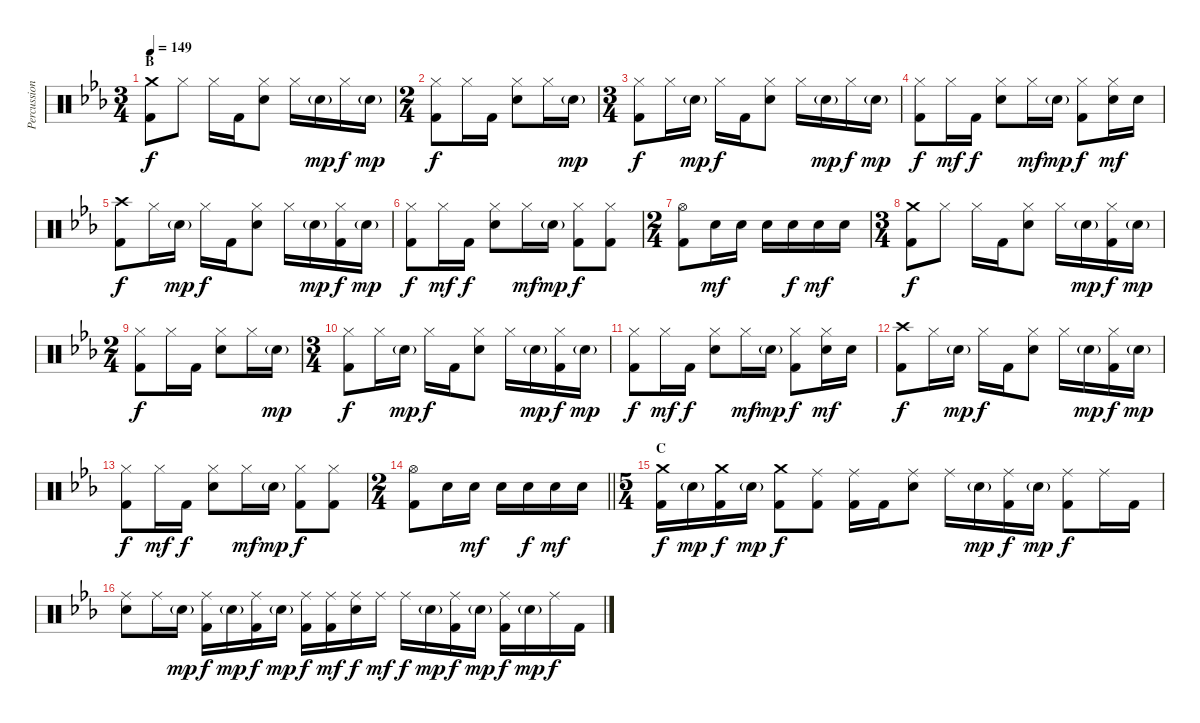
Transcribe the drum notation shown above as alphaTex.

\track ("Percussion" "Percussion") {instrument percussion}
\staff {score}
\articulation defaults
\ts (3 4)
\section ("" "B")
\tempo 149
\clef neutral
\ks cminor
("Crash medium (hit)" "Kick (hit) 2").8{dy f} "Hi-Hat (closed)".8 "Hi-Hat (closed)".16 "Kick (hit) 2".16 ("Hi-Hat (closed)" "Snare (hit) 2").8 "Hi-Hat (closed)".16 "Snare (hit) 2"{g}.16{dy mp} "Hi-Hat (closed)".16{dy f} "Snare (hit) 2"{g}.16{dy mp} |
\ts (2 4)
("Hi-Hat (closed)" "Kick (hit) 2").8{dy f} "Hi-Hat (closed)".16 "Kick (hit) 2".16 ("Hi-Hat (closed)" "Snare (hit) 2").8 "Hi-Hat (closed)".16 "Snare (hit) 2"{g}.16{dy mp} |
\ts (3 4)
("Hi-Hat (closed)" "Kick (hit) 2").8{dy f} "Hi-Hat (closed)".16 "Snare (hit) 2"{g}.16{dy mp} "Hi-Hat (closed)".16{dy f} "Kick (hit) 2".16 ("Hi-Hat (closed)" "Snare (hit) 2").8 "Hi-Hat (closed)".16 "Snare (hit) 2"{g}.16{dy mp} "Hi-Hat (closed)".16{dy f} "Snare (hit) 2"{g}.16{dy mp} |
("Hi-Hat (closed)" "Kick (hit) 2").8{dy f} "Hi-Hat (closed)".16{dy mf} "Kick (hit) 2".16{dy f} ("Hi-Hat (closed)" "Snare (hit) 2").8 "Hi-Hat (closed)".16{dy mf} "Snare (hit) 2"{g}.16{dy mp} ("Hi-Hat (closed)" "Kick (hit) 2").8{dy f} ("Hi-Hat (closed)" "Snare (hit) 2").16{dy mf} "Snare (hit) 2".16 |
("Crash high (hit)" "Kick (hit) 2").8{dy f} "Hi-Hat (closed)".16 "Snare (hit) 2"{g}.16{dy mp} "Hi-Hat (closed)".16{dy f} "Kick (hit) 2".16 ("Hi-Hat (closed)" "Snare (hit) 2").8 "Hi-Hat (closed)".16 "Snare (hit) 2"{g}.16{dy mp} ("Hi-Hat (closed)" "Kick (hit) 2").16{dy f} "Snare (hit) 2"{g}.16{dy mp} |
("Hi-Hat (closed)" "Kick (hit) 2").8{dy f} "Hi-Hat (closed)".16{dy mf} "Kick (hit) 2".16{dy f} ("Hi-Hat (closed)" "Snare (hit) 2").8 "Hi-Hat (closed)".16{dy mf} "Snare (hit) 2"{g}.16{dy mp} ("Hi-Hat (closed)" "Kick (hit) 2").8{dy f} ("Hi-Hat (closed)" "Kick (hit) 2").8 |
\ts (2 4)
("Hi-Hat (open)" "Kick (hit) 2").8 "Snare (hit) 2".16{dy mf} "Snare (hit) 2".16 "Snare (hit) 2".16 "Snare (hit) 2".16{dy f} "Snare (hit) 2".16{dy mf} "Snare (hit) 2".16 |
\ts (3 4)
("Crash medium (hit)" "Kick (hit) 2").8{dy f} "Hi-Hat (closed)".8 "Hi-Hat (closed)".16 "Kick (hit) 2".16 ("Hi-Hat (closed)" "Snare (hit) 2").8 "Hi-Hat (closed)".16 "Snare (hit) 2"{g}.16{dy mp} ("Hi-Hat (closed)" "Kick (hit) 2").16{dy f} "Snare (hit) 2"{g}.16{dy mp} |
\ts (2 4)
("Hi-Hat (closed)" "Kick (hit) 2").8{dy f} "Hi-Hat (closed)".16 "Kick (hit) 2".16 ("Hi-Hat (closed)" "Snare (hit) 2").8 "Hi-Hat (closed)".16 "Snare (hit) 2"{g}.16{dy mp} |
\ts (3 4)
("Hi-Hat (closed)" "Kick (hit) 2").8{dy f} "Hi-Hat (closed)".16 "Snare (hit) 2"{g}.16{dy mp} "Hi-Hat (closed)".16{dy f} "Kick (hit) 2".16 ("Hi-Hat (closed)" "Snare (hit) 2").8 "Hi-Hat (closed)".16 "Snare (hit) 2"{g}.16{dy mp} ("Hi-Hat (closed)" "Kick (hit) 2").16{dy f} "Snare (hit) 2"{g}.16{dy mp} |
("Hi-Hat (closed)" "Kick (hit) 2").8{dy f} "Hi-Hat (closed)".16{dy mf} "Kick (hit) 2".16{dy f} ("Hi-Hat (closed)" "Snare (hit) 2").8 "Hi-Hat (closed)".16{dy mf} "Snare (hit) 2"{g}.16{dy mp} ("Hi-Hat (closed)" "Kick (hit) 2").8{dy f} ("Hi-Hat (closed)" "Snare (hit) 2").16{dy mf} "Snare (hit) 2".16 |
("Crash high (hit)" "Kick (hit) 2").8{dy f} "Hi-Hat (closed)".16 "Snare (hit) 2"{g}.16{dy mp} "Hi-Hat (closed)".16{dy f} "Kick (hit) 2".16 ("Hi-Hat (closed)" "Snare (hit) 2").8 "Hi-Hat (closed)".16 "Snare (hit) 2"{g}.16{dy mp} ("Hi-Hat (closed)" "Kick (hit) 2").16{dy f} "Snare (hit) 2"{g}.16{dy mp} |
("Hi-Hat (closed)" "Kick (hit) 2").8{dy f} "Hi-Hat (closed)".16{dy mf} "Kick (hit) 2".16{dy f} ("Hi-Hat (closed)" "Snare (hit) 2").8 "Hi-Hat (closed)".16{dy mf} "Snare (hit) 2"{g}.16{dy mp} ("Hi-Hat (closed)" "Kick (hit) 2").8{dy f} ("Hi-Hat (closed)" "Kick (hit) 2").8 |
\ts (2 4)
\barLineRight lightlight
("Hi-Hat (open)" "Kick (hit) 2").8 "Snare (hit) 2".16 "Snare (hit) 2".16{dy mf} "Snare (hit) 2".16 "Snare (hit) 2".16{dy f} "Snare (hit) 2".16{dy mf} "Snare (hit) 2".16 |
\ts (5 4)
\section ("" "C")
("Crash medium (hit)" "Kick (hit) 2").16{dy f} "Snare (hit) 2"{g}.16{dy mp} ("Crash medium (hit)" "Kick (hit) 2").16{dy f} "Snare (hit) 2"{g}.16{dy mp} ("Crash medium (hit)" "Kick (hit) 2").8{dy f} ("Ride (middle)" "Kick (hit) 2").8 ("Ride (middle)" "Kick (hit) 2").16 "Kick (hit) 2".16 ("Ride (middle)" "Snare (hit) 2").8 "Ride (middle)".16 "Snare (hit) 2"{g}.16{dy mp} ("Ride (middle)" "Kick (hit) 2").16{dy f} "Snare (hit) 2"{g}.16{dy mp} ("Ride (middle)" "Kick (hit) 2").8{dy f} "Ride (middle)".16 "Kick (hit) 2".16 |
("Ride (middle)" "Snare (hit) 2").8 "Ride (middle)".16 "Snare (hit) 2"{g}.16{dy mp} ("Ride (middle)" "Kick (hit) 2").16{dy f} "Snare (hit) 2"{g}.16{dy mp} ("Ride (middle)" "Kick (hit) 2").16{dy f} "Snare (hit) 2"{g}.16{dy mp} ("Ride (middle)" "Kick (hit) 2").16{dy f} ("Ride (middle)" "Kick (hit) 2").16{dy mf} ("Ride (middle)" "Snare (hit) 2").16{dy f} "Ride (middle)".16{dy mf} "Ride (middle)".16{dy f} "Snare (hit) 2"{g}.16{dy mp} ("Ride (middle)" "Kick (hit) 2").16{dy f} "Snare (hit) 2"{g}.16{dy mp} ("Ride (middle)" "Kick (hit) 2").16{dy f} "Snare (hit) 2"{g}.16{dy mp} "Ride (middle)".16{dy f} "Kick (hit) 2".16
